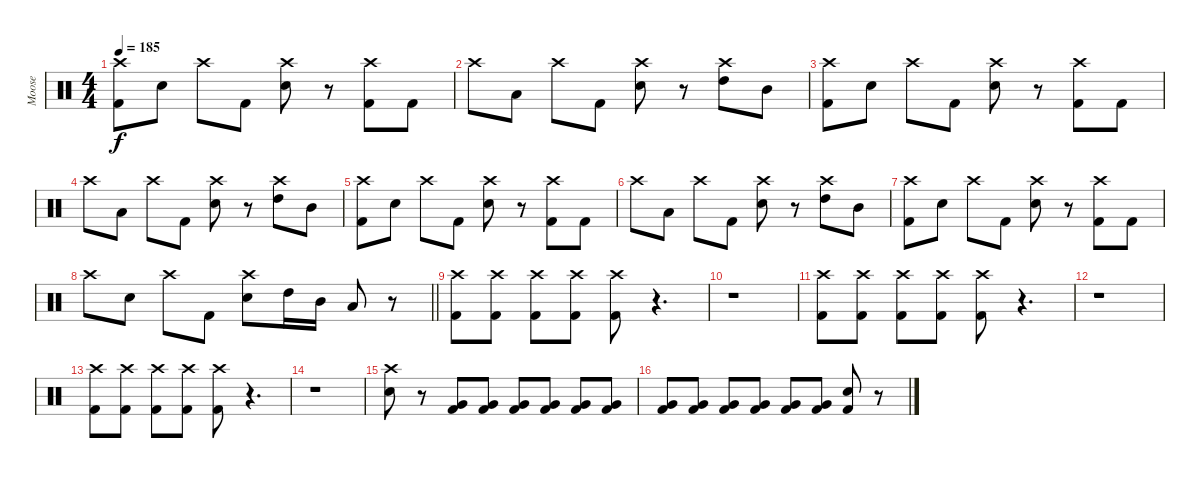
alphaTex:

\track ("Moose" "Moose") {instrument percussion}
\staff {score}
\articulation defaults
\ts (4 4)
\tempo 185
\clef neutral
\ks c
("Crash high (hit)" "Kick (hit) 2").8{dy f} "Electric Snare (hit)".8 "Crash high (hit)".8 "Kick (hit) 2".8 ("Crash high (hit)" "Electric Snare (hit)").8 r.8 ("Crash high (hit)" "Kick (hit) 2").8 "Kick (hit) 2".8 |
"Crash high (hit)".8 "Low Tom (hit)".8 "Crash high (hit)".8 "Kick (hit) 2".8 ("Crash high (hit)" "Electric Snare (hit)").8 r.8 ("Crash high (hit)" "High Tom (hit)").8 "Mid Tom (hit)".8 |
("Crash high (hit)" "Kick (hit) 2").8 "Electric Snare (hit)".8 "Crash high (hit)".8 "Kick (hit) 2".8 ("Crash high (hit)" "Electric Snare (hit)").8 r.8 ("Crash high (hit)" "Kick (hit) 2").8 "Kick (hit) 2".8 |
"Crash high (hit)".8 "Low Tom (hit)".8 "Crash high (hit)".8 "Kick (hit) 2".8 ("Crash high (hit)" "Electric Snare (hit)").8 r.8 ("Crash high (hit)" "High Tom (hit)").8 "Mid Tom (hit)".8 |
("Crash high (hit)" "Kick (hit) 2").8 "Electric Snare (hit)".8 "Crash high (hit)".8 "Kick (hit) 2".8 ("Crash high (hit)" "Electric Snare (hit)").8 r.8 ("Crash high (hit)" "Kick (hit) 2").8 "Kick (hit) 2".8 |
"Crash high (hit)".8 "Low Tom (hit)".8 "Crash high (hit)".8 "Kick (hit) 2".8 ("Crash high (hit)" "Electric Snare (hit)").8 r.8 ("Crash high (hit)" "High Tom (hit)").8 "Mid Tom (hit)".8 |
("Crash high (hit)" "Kick (hit) 2").8 "Electric Snare (hit)".8 "Crash high (hit)".8 "Kick (hit) 2".8 ("Crash high (hit)" "Electric Snare (hit)").8 r.8 ("Crash high (hit)" "Kick (hit) 2").8 "Kick (hit) 2".8 |
\barLineRight lightlight "Crash high (hit)".8 "Electric Snare (hit)".8 "Crash high (hit)".8 "Kick (hit) 2".8
("Crash high (hit)" "Electric Snare (hit)").8 "High Tom (hit)".16 "Mid Tom (hit)".16 "Low Tom (hit)".8 r.8 |
("Crash high (hit)" "Kick (hit) 2").8 ("Crash high (hit)" "Kick (hit) 2").8 ("Crash high (hit)" "Kick (hit) 2").8 ("Crash high (hit)" "Kick (hit) 2").8 ("Crash high (hit)" "Kick (hit) 2").8 r.4{d} |
r.1 |
("Crash high (hit)" "Kick (hit) 2").8 ("Crash high (hit)" "Kick (hit) 2").8 ("Crash high (hit)" "Kick (hit) 2").8 ("Crash high (hit)" "Kick (hit) 2").8 ("Crash high (hit)" "Kick (hit) 2").8 r.4{d} |
r.1 |
("Crash high (hit)" "Kick (hit) 2").8 ("Crash high (hit)" "Kick (hit) 2").8 ("Crash high (hit)" "Kick (hit) 2").8 ("Crash high (hit)" "Kick (hit) 2").8 ("Crash high (hit)" "Kick (hit) 2").8 r.4{d} |
r.1 |
("Crash high (hit)" "Electric Snare (hit)").8 r.8 ("Very Low Tom (hit)" "Kick (hit) 2").8 ("Very Low Tom (hit)" "Kick (hit) 2").8 ("Very Low Tom (hit)" "Kick (hit) 2").8 ("Very Low Tom (hit)" "Kick (hit) 2").8 ("Very Low Tom (hit)" "Kick (hit) 2").8 ("Very Low Tom (hit)" "Kick (hit) 2").8 |
("Very Low Tom (hit)" "Kick (hit) 2").8 ("Very Low Tom (hit)" "Kick (hit) 2").8 ("Very Low Tom (hit)" "Kick (hit) 2").8 ("Very Low Tom (hit)" "Kick (hit) 2").8 ("Very Low Tom (hit)" "Kick (hit) 2").8 ("Very Low Tom (hit)" "Kick (hit) 2").8 ("Electric Snare (hit)" "Kick (hit) 2").8 r.8
